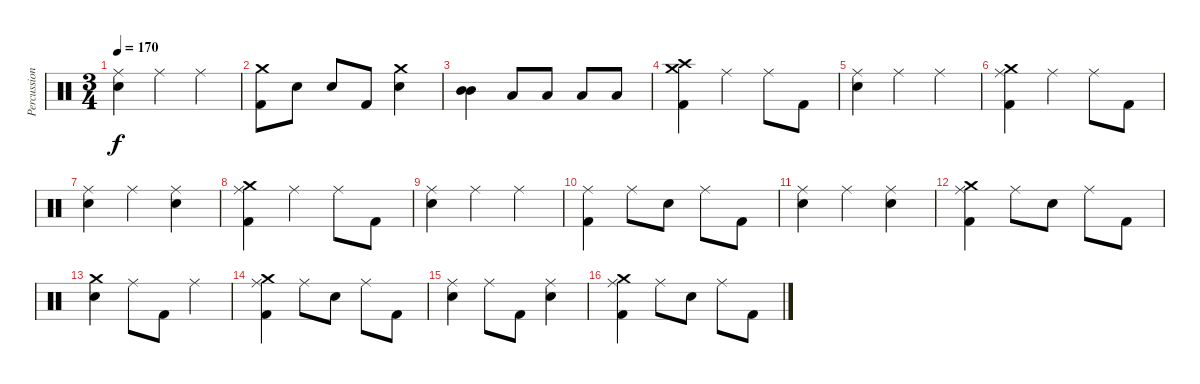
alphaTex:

\track ("Percussion" "Percussion") {instrument percussion}
\staff {score}
\articulation defaults
\ts (3 4)
\tempo 170
\clef neutral
\ks c
("Ride (middle)" "Electric Snare (hit)").4{dy f} "Ride (middle)".4 "Ride (middle)".4 |
("Crash medium (hit)" "Kick (hit) 2").8 "Electric Snare (hit)".8 "Electric Snare (hit)".8 "Kick (hit) 2".8 ("Crash medium (hit)" "Electric Snare (hit)").4 |
("Mid Tom (hit)" "Mid Tom (hit)").4 "Low Tom (hit)".8 "Low Tom (hit)".8 "Low Tom (hit)".8 "Low Floor Tom (hit)".8 |
("Crash medium (hit)" "Crash high (hit)" "Kick (hit) 2").4 "Ride (middle)".4 "Ride (middle)".8 "Kick (hit) 2".8 |
("Ride (middle)" "Electric Snare (hit)").4 "Ride (middle)".4 "Ride (middle)".4 |
("Ride (middle)" "Crash medium (hit)" "Kick (hit) 2").4 "Ride (middle)".4 "Ride (middle)".8 "Kick (hit) 2".8 |
("Ride (middle)" "Electric Snare (hit)").4 "Ride (middle)".4 ("Ride (middle)" "Electric Snare (hit)").4 |
("Ride (middle)" "Crash medium (hit)" "Kick (hit) 2").4 "Ride (middle)".4 "Ride (middle)".8 "Kick (hit) 2".8 |
("Ride (middle)" "Electric Snare (hit)").4 "Ride (middle)".4 "Ride (middle)".4 |
("Ride (middle)" "Kick (hit) 2").4 "Ride (middle)".8 "Electric Snare (hit)".8 "Ride (middle)".8 "Kick (hit) 2".8 |
("Ride (middle)" "Electric Snare (hit)").4 "Ride (middle)".4 ("Ride (middle)" "Electric Snare (hit)").4 |
("Ride (middle)" "Crash medium (hit)" "Kick (hit) 2").4 "Ride (middle)".8 "Electric Snare (hit)".8 "Ride (middle)".8 "Kick (hit) 2".8 |
("Crash medium (hit)" "Electric Snare (hit)").4 "Ride (middle)".8 "Kick (hit) 2".8 "Ride (middle)".4 |
("Ride (middle)" "Crash medium (hit)" "Kick (hit) 2").4 "Ride (middle)".8 "Electric Snare (hit)".8 "Ride (middle)".8 "Kick (hit) 2".8 |
("Ride (middle)" "Electric Snare (hit)").4 "Ride (middle)".8 "Kick (hit) 2".8 ("Ride (middle)" "Electric Snare (hit)").4 |
("Ride (middle)" "Crash medium (hit)" "Kick (hit) 2").4 "Ride (middle)".8 "Electric Snare (hit)".8 "Ride (middle)".8 "Kick (hit) 2".8
